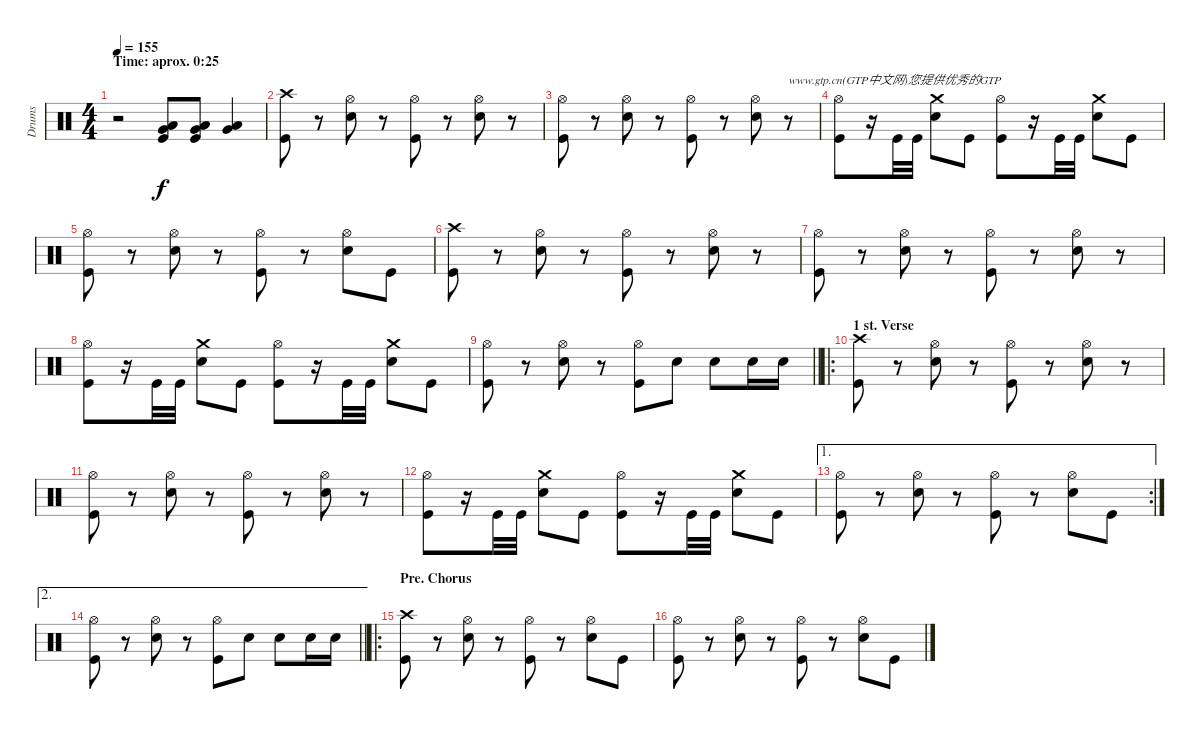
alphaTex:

\track ("Drums" "Drums") {instrument percussion}
\staff {score}
\articulation defaults
\ts (4 4)
\section ("" "Time: aprox. 0:25")
\tempo 155
\clef neutral
\ks c
r.2{dy f} ("Very Low Tom (hit)" "Low Tom (hit)" "Kick (hit)").8 ("Very Low Tom (hit)" "Low Tom (hit)" "Kick (hit)").8 ("Very Low Tom (hit)" "Low Tom (hit)").4 |
("Crash high (hit)" "Kick (hit)").8 r.8 ("Hi-Hat (open)" "Electric Snare (hit)").8 r.8 ("Hi-Hat (open)" "Kick (hit)").8 r.8 ("Hi-Hat (open)" "Electric Snare (hit)").8 r.8 |
("Hi-Hat (open)" "Kick (hit)").8 r.8 ("Hi-Hat (open)" "Electric Snare (hit)").8 r.8 ("Hi-Hat (open)" "Kick (hit)").8 r.8 ("Hi-Hat (open)" "Electric Snare (hit)").8 r.8{txt "www.gtp.cn(GTP中文网)您提供优秀的GTP"} |
("Hi-Hat (open)" "Kick (hit)").8 r.16 "Kick (hit)".32 "Kick (hit)".32 ("Crash medium (hit)" "Electric Snare (hit)").8 "Kick (hit)".8 ("Hi-Hat (open)" "Kick (hit)").8 r.16 "Kick (hit)".32 "Kick (hit)".32 ("Crash medium (hit)" "Electric Snare (hit)").8 "Kick (hit)".8 |
("Hi-Hat (open)" "Kick (hit)").8 r.8 ("Hi-Hat (open)" "Electric Snare (hit)").8 r.8 ("Hi-Hat (open)" "Kick (hit)").8 r.8 ("Hi-Hat (open)" "Electric Snare (hit)").8 "Kick (hit)".8 |
("Crash high (hit)" "Kick (hit)").8 r.8 ("Hi-Hat (open)" "Electric Snare (hit)").8 r.8 ("Hi-Hat (open)" "Kick (hit)").8 r.8 ("Hi-Hat (open)" "Electric Snare (hit)").8 r.8 |
("Hi-Hat (open)" "Kick (hit)").8 r.8 ("Hi-Hat (open)" "Electric Snare (hit)").8 r.8 ("Hi-Hat (open)" "Kick (hit)").8 r.8 ("Hi-Hat (open)" "Electric Snare (hit)").8 r.8 |
("Hi-Hat (open)" "Kick (hit)").8 r.16 "Kick (hit)".32 "Kick (hit)".32 ("Crash medium (hit)" "Electric Snare (hit)").8 "Kick (hit)".8 ("Hi-Hat (open)" "Kick (hit)").8 r.16 "Kick (hit)".32 "Kick (hit)".32 ("Crash medium (hit)" "Electric Snare (hit)").8 "Kick (hit)".8 |
\barLineRight lightlight
("Hi-Hat (open)" "Kick (hit)").8 r.8 ("Hi-Hat (open)" "Electric Snare (hit)").8 r.8 ("Hi-Hat (open)" "Kick (hit)").8 "Electric Snare (hit)".8 "Electric Snare (hit)".8 "Electric Snare (hit)".16 "Electric Snare (hit)".16 |
\ro
\section ("" "1 st. Verse")
("Crash high (hit)" "Kick (hit)").8 r.8 ("Hi-Hat (open)" "Electric Snare (hit)").8 r.8 ("Hi-Hat (open)" "Kick (hit)").8 r.8 ("Hi-Hat (open)" "Electric Snare (hit)").8 r.8 |
("Hi-Hat (open)" "Kick (hit)").8 r.8 ("Hi-Hat (open)" "Electric Snare (hit)").8 r.8 ("Hi-Hat (open)" "Kick (hit)").8 r.8 ("Hi-Hat (open)" "Electric Snare (hit)").8 r.8 |
("Hi-Hat (open)" "Kick (hit)").8 r.16 "Kick (hit)".32 "Kick (hit)".32 ("Crash medium (hit)" "Electric Snare (hit)").8 "Kick (hit)".8 ("Hi-Hat (open)" "Kick (hit)").8 r.16 "Kick (hit)".32 "Kick (hit)".32 ("Crash medium (hit)" "Electric Snare (hit)").8 "Kick (hit)".8 |
\ae 1
\rc 2
("Hi-Hat (open)" "Kick (hit)").8 r.8 ("Hi-Hat (open)" "Electric Snare (hit)").8 r.8 ("Hi-Hat (open)" "Kick (hit)").8 r.8 ("Hi-Hat (open)" "Electric Snare (hit)").8 "Kick (hit)".8 |
\ae 2
\barLineRight lightlight
("Hi-Hat (open)" "Kick (hit)").8 r.8 ("Hi-Hat (open)" "Electric Snare (hit)").8 r.8 ("Hi-Hat (open)" "Kick (hit)").8 "Electric Snare (hit)".8 "Electric Snare (hit)".8 "Electric Snare (hit)".16 "Electric Snare (hit)".16 |
\ro
\section ("" "Pre. Chorus")
("Crash high (hit)" "Kick (hit)").8 r.8 ("Hi-Hat (open)" "Electric Snare (hit)").8 r.8 ("Hi-Hat (open)" "Kick (hit)").8 r.8 ("Hi-Hat (open)" "Electric Snare (hit)").8 "Kick (hit)".8 |
("Hi-Hat (open)" "Kick (hit)").8 r.8 ("Hi-Hat (open)" "Electric Snare (hit)").8 r.8 ("Hi-Hat (open)" "Kick (hit)").8 r.8 ("Hi-Hat (open)" "Electric Snare (hit)").8 "Kick (hit)".8
